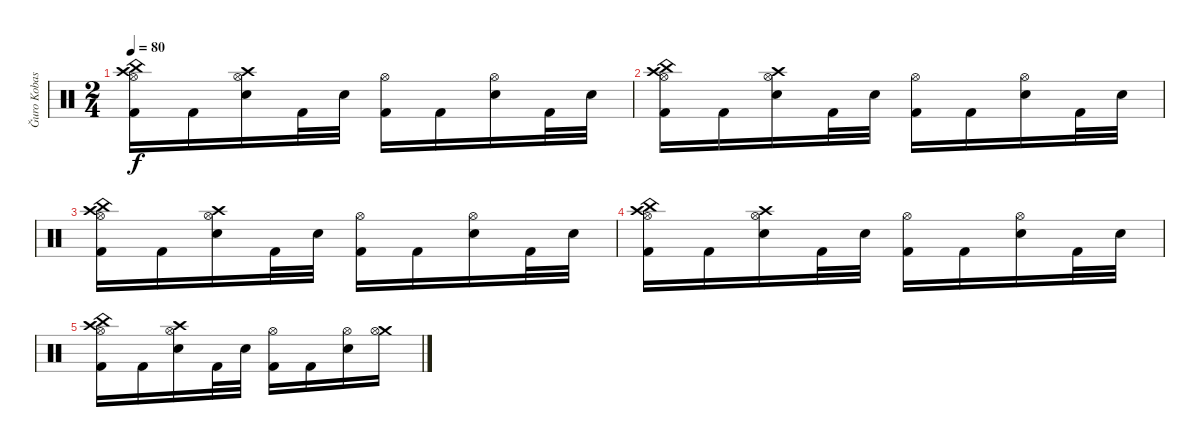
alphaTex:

\track ("Ğuro Kobasiæmasniæ" "Ğuro Kobas") {instrument percussion}
\staff {score}
\articulation defaults
\ts (2 4)
\tempo 80
\clef neutral
\ks c
("China (hit)" "Crash high (hit)" "Hi-Hat (open)" "Kick (hit) 2").16{dy f} "Kick (hit) 2".16 ("Crash high (hit)" "Hi-Hat (open)" "Electric Snare (hit)").16 "Kick (hit) 2".32 "Electric Snare (hit)".32 ("Hi-Hat (open)" "Kick (hit) 2").16 "Kick (hit) 2".16 ("Hi-Hat (open)" "Electric Snare (hit)").16 "Kick (hit) 2".32 "Electric Snare (hit)".32 |
("China (hit)" "Crash high (hit)" "Hi-Hat (open)" "Kick (hit) 2").16 "Kick (hit) 2".16 ("Crash high (hit)" "Hi-Hat (open)" "Electric Snare (hit)").16 "Kick (hit) 2".32 "Electric Snare (hit)".32 ("Hi-Hat (open)" "Kick (hit) 2").16 "Kick (hit) 2".16 ("Hi-Hat (open)" "Electric Snare (hit)").16 "Kick (hit) 2".32 "Electric Snare (hit)".32 |
("China (hit)" "Crash high (hit)" "Hi-Hat (open)" "Kick (hit) 2").16 "Kick (hit) 2".16 ("Crash high (hit)" "Hi-Hat (open)" "Electric Snare (hit)").16 "Kick (hit) 2".32 "Electric Snare (hit)".32 ("Hi-Hat (open)" "Kick (hit) 2").16 "Kick (hit) 2".16 ("Hi-Hat (open)" "Electric Snare (hit)").16 "Kick (hit) 2".32 "Electric Snare (hit)".32 |
("China (hit)" "Crash high (hit)" "Hi-Hat (open)" "Kick (hit) 2").16 "Kick (hit) 2".16 ("Crash high (hit)" "Hi-Hat (open)" "Electric Snare (hit)").16 "Kick (hit) 2".32 "Electric Snare (hit)".32 ("Hi-Hat (open)" "Kick (hit) 2").16 "Kick (hit) 2".16 ("Hi-Hat (open)" "Electric Snare (hit)").16 "Kick (hit) 2".32 "Electric Snare (hit)".32 |
("China (hit)" "Crash high (hit)" "Hi-Hat (open)" "Kick (hit) 2").16 "Kick (hit) 2".16 ("Crash high (hit)" "Hi-Hat (open)" "Electric Snare (hit)").16 "Kick (hit) 2".32 "Electric Snare (hit)".32 ("Hi-Hat (open)" "Kick (hit) 2").16 "Kick (hit) 2".16 ("Hi-Hat (open)" "Electric Snare (hit)").16 ("Crash medium (hit)" "Hi-Hat (open)").16
